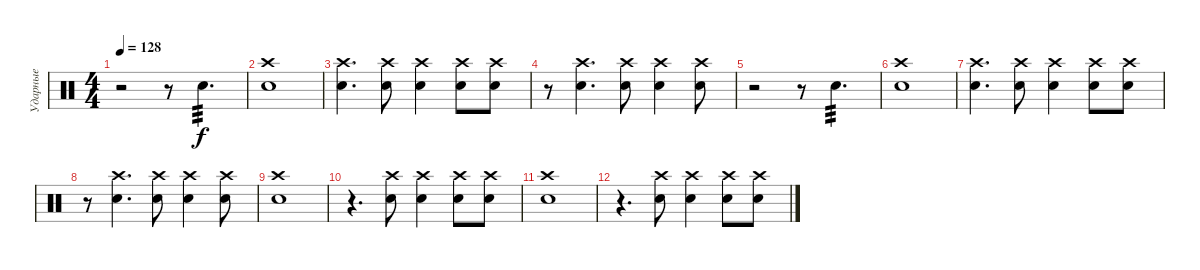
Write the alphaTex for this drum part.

\track ("Ударные" "Ударные") {instrument percussion}
\staff {score}
\articulation defaults
\ts (4 4)
\tempo 128
\clef neutral
\ks c
r.2{dy f} r.8 "Electric Snare (hit)".4{d tp 3} |
("Crash high (hit)" "Electric Snare (hit)").1 |
("Crash high (hit)" "Electric Snare (hit)").4{d} ("Crash high (hit)" "Electric Snare (hit)").8 ("Crash high (hit)" "Electric Snare (hit)").4 ("Crash high (hit)" "Electric Snare (hit)").8 ("Crash high (hit)" "Electric Snare (hit)").8 |
r.8 ("Crash high (hit)" "Electric Snare (hit)").4{d} ("Crash high (hit)" "Electric Snare (hit)").8 ("Crash high (hit)" "Electric Snare (hit)").4 ("Crash high (hit)" "Electric Snare (hit)").8 |
r.2 r.8 "Electric Snare (hit)".4{d tp 3} |
("Crash high (hit)" "Electric Snare (hit)").1 |
("Crash high (hit)" "Electric Snare (hit)").4{d} ("Crash high (hit)" "Electric Snare (hit)").8 ("Crash high (hit)" "Electric Snare (hit)").4 ("Crash high (hit)" "Electric Snare (hit)").8 ("Crash high (hit)" "Electric Snare (hit)").8 |
r.8 ("Crash high (hit)" "Electric Snare (hit)").4{d} ("Crash high (hit)" "Electric Snare (hit)").8 ("Crash high (hit)" "Electric Snare (hit)").4 ("Crash high (hit)" "Electric Snare (hit)").8 |
("Crash high (hit)" "Electric Snare (hit)").1 |
r.4{d} ("Crash high (hit)" "Electric Snare (hit)").8 ("Crash high (hit)" "Electric Snare (hit)").4 ("Crash high (hit)" "Electric Snare (hit)").8 ("Crash high (hit)" "Electric Snare (hit)").8 |
("Crash high (hit)" "Electric Snare (hit)").1 |
r.4{d} ("Crash high (hit)" "Electric Snare (hit)").8 ("Crash high (hit)" "Electric Snare (hit)").4 ("Crash high (hit)" "Electric Snare (hit)").8 ("Crash high (hit)" "Electric Snare (hit)").8
